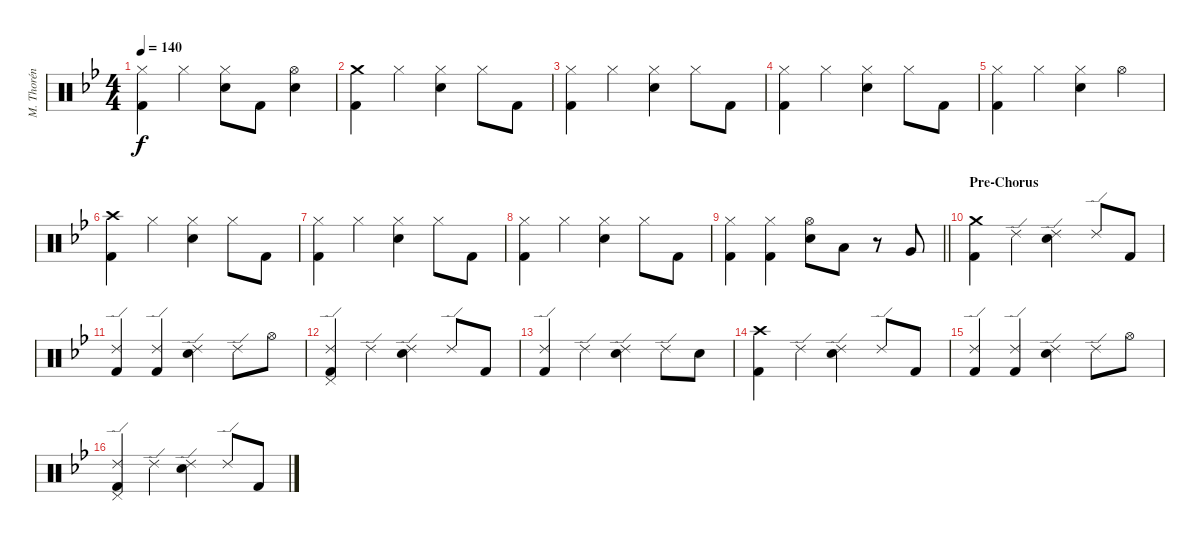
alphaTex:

\track ("M. Thorén (Drums)" "M. Thorén ") {instrument percussion}
\staff {score}
\articulation defaults
\ts (4 4)
\tempo 140
\clef neutral
\ks gminor
("Hi-Hat (closed)" "Kick (hit) 2").4{dy f} "Hi-Hat (closed)".4 ("Hi-Hat (closed)" "Electric Snare (hit)").8 "Kick (hit) 2".8 ("Hi-Hat (open)" "Electric Snare (hit)").4 |
("Crash medium (hit)" "Kick (hit) 2").4 "Hi-Hat (closed)".4 ("Hi-Hat (closed)" "Electric Snare (hit)").4 "Hi-Hat (closed)".8 "Kick (hit) 2".8 |
("Hi-Hat (closed)" "Kick (hit) 2").4 "Hi-Hat (closed)".4 ("Hi-Hat (closed)" "Electric Snare (hit)").4 "Hi-Hat (closed)".8 "Kick (hit) 2".8 |
("Hi-Hat (closed)" "Kick (hit) 2").4 "Hi-Hat (closed)".4 ("Hi-Hat (closed)" "Electric Snare (hit)").4 "Hi-Hat (closed)".8 "Kick (hit) 2".8 |
("Hi-Hat (closed)" "Kick (hit) 2").4 "Hi-Hat (closed)".4 ("Hi-Hat (closed)" "Electric Snare (hit)").4 "Hi-Hat (open)".4 |
("Crash high (hit)" "Kick (hit) 2").4 "Hi-Hat (closed)".4 ("Hi-Hat (closed)" "Electric Snare (hit)").4 "Hi-Hat (closed)".8 "Kick (hit) 2".8 |
("Hi-Hat (closed)" "Kick (hit) 2").4 "Hi-Hat (closed)".4 ("Hi-Hat (closed)" "Electric Snare (hit)").4 "Hi-Hat (closed)".8 "Kick (hit) 2".8 |
("Hi-Hat (closed)" "Kick (hit) 2").4 "Hi-Hat (closed)".4 ("Hi-Hat (closed)" "Electric Snare (hit)").4 "Hi-Hat (closed)".8 "Kick (hit) 2".8 |
\barLineRight lightlight
("Hi-Hat (closed)" "Kick (hit) 2").4 ("Hi-Hat (closed)" "Kick (hit) 2").4 ("Hi-Hat (open)" "Electric Snare (hit)").8 "Low Tom (hit)".8 r.8 "Very Low Tom (hit)".8 |
\section ("" "Pre-Chorus")
("Crash medium (hit)" "Kick (hit) 2").4 "Ride (edge) 2".4 ("Ride (edge) 2" "Electric Snare (hit)").4 "Ride (edge) 2".8 "Kick (hit) 2".8 |
("Ride (edge) 2" "Kick (hit) 2").4 ("Ride (edge) 2" "Kick (hit) 2").4 ("Ride (edge) 2" "Electric Snare (hit)").4 "Ride (edge) 2".8 "Hi-Hat (open)".8 |
("Ride (edge) 2" "Pedal Hi-Hat (hit)" "Kick (hit) 2").4 "Ride (edge) 2".4 ("Ride (edge) 2" "Electric Snare (hit)").4 "Ride (edge) 2".8 "Kick (hit) 2".8 |
("Ride (edge) 2" "Kick (hit) 2").4 "Ride (edge) 2".4 ("Ride (edge) 2" "Electric Snare (hit)").4 "Ride (edge) 2".8 "Electric Snare (hit)".8 |
("Crash high (hit)" "Kick (hit) 2").4 "Ride (edge) 2".4 ("Ride (edge) 2" "Electric Snare (hit)").4 "Ride (edge) 2".8 "Kick (hit) 2".8 |
("Ride (edge) 2" "Kick (hit) 2").4 ("Ride (edge) 2" "Kick (hit) 2").4 ("Ride (edge) 2" "Electric Snare (hit)").4 "Ride (edge) 2".8 "Hi-Hat (open)".8 |
("Ride (edge) 2" "Pedal Hi-Hat (hit)" "Kick (hit) 2").4 "Ride (edge) 2".4 ("Ride (edge) 2" "Electric Snare (hit)").4 "Ride (edge) 2".8 "Kick (hit) 2".8
